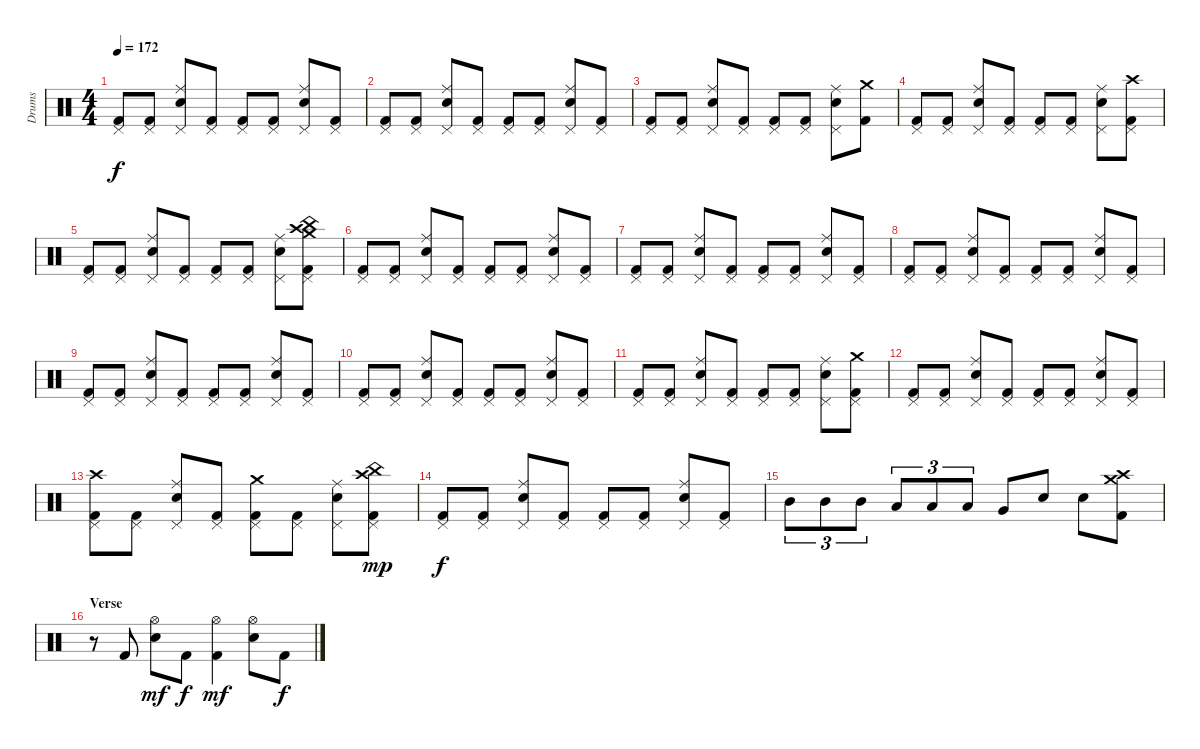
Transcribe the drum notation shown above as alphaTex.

\track ("Drums" "Drums") {instrument percussion}
\staff {score}
\articulation defaults
\ts (4 4)
\tempo 172
\clef neutral
\ks c
("Pedal Hi-Hat (hit)" "Kick (hit) 2").8{dy f} ("Pedal Hi-Hat (hit)" "Kick (hit) 2").8 ("Pedal Hi-Hat (hit)" "Ride (middle)" "Electric Snare (hit)").8 ("Pedal Hi-Hat (hit)" "Kick (hit) 2").8 ("Pedal Hi-Hat (hit)" "Kick (hit) 2").8 ("Pedal Hi-Hat (hit)" "Kick (hit) 2").8 ("Pedal Hi-Hat (hit)" "Ride (middle)" "Electric Snare (hit)").8 ("Pedal Hi-Hat (hit)" "Kick (hit) 2").8 |
("Pedal Hi-Hat (hit)" "Kick (hit) 2").8 ("Pedal Hi-Hat (hit)" "Kick (hit) 2").8 ("Pedal Hi-Hat (hit)" "Ride (middle)" "Electric Snare (hit)").8 ("Pedal Hi-Hat (hit)" "Kick (hit) 2").8 ("Pedal Hi-Hat (hit)" "Kick (hit) 2").8 ("Pedal Hi-Hat (hit)" "Kick (hit) 2").8 ("Pedal Hi-Hat (hit)" "Ride (middle)" "Electric Snare (hit)").8 ("Pedal Hi-Hat (hit)" "Kick (hit) 2").8 |
("Pedal Hi-Hat (hit)" "Kick (hit) 2").8 ("Pedal Hi-Hat (hit)" "Kick (hit) 2").8 ("Pedal Hi-Hat (hit)" "Ride (middle)" "Electric Snare (hit)").8 ("Pedal Hi-Hat (hit)" "Kick (hit) 2").8 ("Pedal Hi-Hat (hit)" "Kick (hit) 2").8 ("Pedal Hi-Hat (hit)" "Kick (hit) 2").8 ("Pedal Hi-Hat (hit)" "Ride (middle)" "Electric Snare (hit)").8 ("Crash medium (hit)" "Kick (hit) 2").8 |
("Pedal Hi-Hat (hit)" "Kick (hit) 2").8 ("Pedal Hi-Hat (hit)" "Kick (hit) 2").8 ("Pedal Hi-Hat (hit)" "Ride (middle)" "Electric Snare (hit)").8 ("Pedal Hi-Hat (hit)" "Kick (hit) 2").8 ("Pedal Hi-Hat (hit)" "Kick (hit) 2").8 ("Pedal Hi-Hat (hit)" "Kick (hit) 2").8 ("Pedal Hi-Hat (hit)" "Ride (middle)" "Electric Snare (hit)").8 ("Pedal Hi-Hat (hit)" "Crash high (hit)" "Kick (hit) 2").8 |
("Pedal Hi-Hat (hit)" "Kick (hit) 2").8 ("Pedal Hi-Hat (hit)" "Kick (hit) 2").8 ("Pedal Hi-Hat (hit)" "Ride (middle)" "Electric Snare (hit)").8 ("Pedal Hi-Hat (hit)" "Kick (hit) 2").8 ("Pedal Hi-Hat (hit)" "Kick (hit) 2").8 ("Pedal Hi-Hat (hit)" "Kick (hit) 2").8 ("Pedal Hi-Hat (hit)" "Ride (middle)" "Electric Snare (hit)").8 ("Pedal Hi-Hat (hit)" "China (hit)" "Crash medium (hit)" "Crash high (hit)" "Kick (hit) 2").8 |
\section ("" "")
("Pedal Hi-Hat (hit)" "Kick (hit) 2").8 ("Pedal Hi-Hat (hit)" "Kick (hit) 2").8 ("Pedal Hi-Hat (hit)" "Ride (middle)" "Electric Snare (hit)").8 ("Pedal Hi-Hat (hit)" "Kick (hit) 2").8 ("Pedal Hi-Hat (hit)" "Kick (hit) 2").8 ("Pedal Hi-Hat (hit)" "Kick (hit) 2").8 ("Pedal Hi-Hat (hit)" "Ride (middle)" "Electric Snare (hit)").8 ("Pedal Hi-Hat (hit)" "Kick (hit) 2").8 |
("Pedal Hi-Hat (hit)" "Kick (hit) 2").8 ("Pedal Hi-Hat (hit)" "Kick (hit) 2").8 ("Pedal Hi-Hat (hit)" "Ride (middle)" "Electric Snare (hit)").8 ("Pedal Hi-Hat (hit)" "Kick (hit) 2").8 ("Pedal Hi-Hat (hit)" "Kick (hit) 2").8 ("Pedal Hi-Hat (hit)" "Kick (hit) 2").8 ("Pedal Hi-Hat (hit)" "Ride (middle)" "Electric Snare (hit)").8 ("Pedal Hi-Hat (hit)" "Kick (hit) 2").8 |
("Pedal Hi-Hat (hit)" "Kick (hit) 2").8 ("Pedal Hi-Hat (hit)" "Kick (hit) 2").8 ("Pedal Hi-Hat (hit)" "Ride (middle)" "Electric Snare (hit)").8 ("Pedal Hi-Hat (hit)" "Kick (hit) 2").8 ("Pedal Hi-Hat (hit)" "Kick (hit) 2").8 ("Pedal Hi-Hat (hit)" "Kick (hit) 2").8 ("Pedal Hi-Hat (hit)" "Ride (middle)" "Electric Snare (hit)").8 ("Pedal Hi-Hat (hit)" "Kick (hit) 2").8 |
("Pedal Hi-Hat (hit)" "Kick (hit) 2").8 ("Pedal Hi-Hat (hit)" "Kick (hit) 2").8 ("Pedal Hi-Hat (hit)" "Ride (middle)" "Electric Snare (hit)").8 ("Pedal Hi-Hat (hit)" "Kick (hit) 2").8 ("Pedal Hi-Hat (hit)" "Kick (hit) 2").8 ("Pedal Hi-Hat (hit)" "Kick (hit) 2").8 ("Pedal Hi-Hat (hit)" "Ride (middle)" "Electric Snare (hit)").8 ("Pedal Hi-Hat (hit)" "Kick (hit) 2").8 |
("Pedal Hi-Hat (hit)" "Kick (hit) 2").8 ("Pedal Hi-Hat (hit)" "Kick (hit) 2").8 ("Pedal Hi-Hat (hit)" "Ride (middle)" "Electric Snare (hit)").8 ("Pedal Hi-Hat (hit)" "Kick (hit) 2").8 ("Pedal Hi-Hat (hit)" "Kick (hit) 2").8 ("Pedal Hi-Hat (hit)" "Kick (hit) 2").8 ("Pedal Hi-Hat (hit)" "Ride (middle)" "Electric Snare (hit)").8 ("Pedal Hi-Hat (hit)" "Kick (hit) 2").8 |
("Pedal Hi-Hat (hit)" "Kick (hit) 2").8 ("Pedal Hi-Hat (hit)" "Kick (hit) 2").8 ("Pedal Hi-Hat (hit)" "Ride (middle)" "Electric Snare (hit)").8 ("Pedal Hi-Hat (hit)" "Kick (hit) 2").8 ("Pedal Hi-Hat (hit)" "Kick (hit) 2").8 ("Pedal Hi-Hat (hit)" "Kick (hit) 2").8 ("Pedal Hi-Hat (hit)" "Ride (middle)" "Electric Snare (hit)").8 ("Pedal Hi-Hat (hit)" "Crash medium (hit)" "Kick (hit) 2").8 |
("Pedal Hi-Hat (hit)" "Kick (hit) 2").8 ("Pedal Hi-Hat (hit)" "Kick (hit) 2").8 ("Pedal Hi-Hat (hit)" "Ride (middle)" "Electric Snare (hit)").8 ("Pedal Hi-Hat (hit)" "Kick (hit) 2").8 ("Pedal Hi-Hat (hit)" "Kick (hit) 2").8 ("Pedal Hi-Hat (hit)" "Kick (hit) 2").8 ("Pedal Hi-Hat (hit)" "Ride (middle)" "Electric Snare (hit)").8 ("Pedal Hi-Hat (hit)" "Kick (hit) 2").8 |
("Pedal Hi-Hat (hit)" "Crash high (hit)" "Kick (hit) 2").8 ("Pedal Hi-Hat (hit)" "Kick (hit) 2").8 ("Pedal Hi-Hat (hit)" "Ride (middle)" "Electric Snare (hit)").8 ("Pedal Hi-Hat (hit)" "Kick (hit) 2").8 ("Pedal Hi-Hat (hit)" "Crash medium (hit)" "Kick (hit) 2").8 ("Pedal Hi-Hat (hit)" "Kick (hit) 2").8 ("Pedal Hi-Hat (hit)" "Ride (middle)" "Electric Snare (hit)").8 ("Pedal Hi-Hat (hit)" "Crash high (hit)" "China (hit)" "Kick (hit) 2").8{dy mp} |
("Pedal Hi-Hat (hit)" "Kick (hit) 2").8{dy f} ("Pedal Hi-Hat (hit)" "Kick (hit) 2").8 ("Pedal Hi-Hat (hit)" "Ride (middle)" "Electric Snare (hit)").8 ("Pedal Hi-Hat (hit)" "Kick (hit) 2").8 ("Pedal Hi-Hat (hit)" "Kick (hit) 2").8 ("Pedal Hi-Hat (hit)" "Kick (hit) 2").8 ("Pedal Hi-Hat (hit)" "Ride (middle)" "Electric Snare (hit)").8 ("Pedal Hi-Hat (hit)" "Kick (hit) 2").8 |
"Mid Tom (hit)".8{tu (3 2)} "Mid Tom (hit)".8{tu (3 2)} "Mid Tom (hit)".8{tu (3 2)} "Low Tom (hit)".8{tu (3 2)} "Low Tom (hit)".8{tu (3 2)} "Low Tom (hit)".8{tu (3 2)} "Very Low Tom (hit)".8 "Electric Snare (hit)".8 "Electric Snare (hit)".8 ("Crash medium (hit)" "Crash high (hit)" "Kick (hit) 2").8 |
\section ("" "Verse")
r.8 "Kick (hit) 2".8 ("Hi-Hat (open)" "Electric Snare (hit)").8{dy mf} "Kick (hit) 2".8{dy f} ("Hi-Hat (open)" "Kick (hit) 2").4{dy mf} ("Hi-Hat (open)" "Electric Snare (hit)").8 "Kick (hit) 2".8{dy f}
